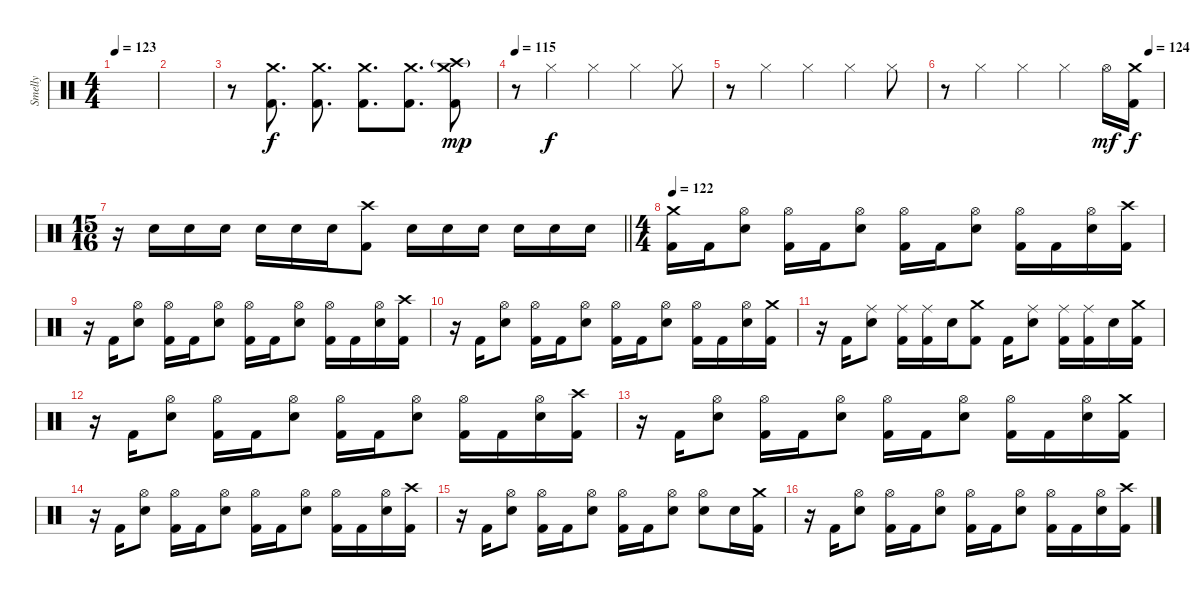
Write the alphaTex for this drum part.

\track ("Smelly" "Smelly") {instrument percussion}
\staff {score}
\articulation defaults
\ts (4 4)
\tempo 123
\clef neutral
\ks c
|
|
r.8 ("Crash medium (hit)" "Kick (hit) 2").8{d dy f} ("Crash medium (hit)" "Kick (hit) 2").8{d} ("Crash medium (hit)" "Kick (hit) 2").8{d} ("Crash medium (hit)" "Kick (hit) 2").8{d} ("Crash medium (hit)" "Crash high (hit)"{g} "Kick (hit) 2").8{dy mp} |
\tempo 115
r.8 "Hi-Hat (closed)".4{dy f} "Hi-Hat (closed)".4 "Hi-Hat (closed)".4 "Hi-Hat (closed)".8 |
r.8 "Hi-Hat (closed)".4 "Hi-Hat (closed)".4 "Hi-Hat (closed)".4 "Hi-Hat (closed)".8 |
\tempo (124 0.9375)
r.8 "Hi-Hat (closed)".4 "Hi-Hat (closed)".4 "Hi-Hat (closed)".4 "Hi-Hat (open)".16{dy mf} ("Crash medium (hit)" "Kick (hit) 2").16{dy f} |
\ts (15 16)
\barLineRight lightlight
r.16 "Electric Snare (hit)".16 "Electric Snare (hit)".16 "Electric Snare (hit)".16 "Electric Snare (hit)".16 "Electric Snare (hit)".16 "Electric Snare (hit)".16 ("Crash high (hit)" "Kick (hit) 2").8 "Electric Snare (hit)".16 "Electric Snare (hit)".16 "Electric Snare (hit)".16 "Electric Snare (hit)".16 "Electric Snare (hit)".16 "Electric Snare (hit)".16 |
\ts (4 4)
\section ("" "")
\tempo 122
("Crash medium (hit)" "Kick (hit) 2").16 "Kick (hit) 2".16 ("Hi-Hat (open)" "Electric Snare (hit)").8 ("Hi-Hat (open)" "Kick (hit) 2").16 "Kick (hit) 2".16 ("Hi-Hat (open)" "Electric Snare (hit)").8 ("Hi-Hat (open)" "Kick (hit) 2").16 "Kick (hit) 2".16 ("Hi-Hat (open)" "Electric Snare (hit)").8 ("Hi-Hat (open)" "Kick (hit) 2").16 "Kick (hit) 2".16 ("Hi-Hat (open)" "Electric Snare (hit)").16 ("Crash high (hit)" "Kick (hit) 2").16 |
r.16 "Kick (hit) 2".16 ("Hi-Hat (open)" "Electric Snare (hit)").8 ("Hi-Hat (open)" "Kick (hit) 2").16 "Kick (hit) 2".16 ("Hi-Hat (open)" "Electric Snare (hit)").8 ("Hi-Hat (open)" "Kick (hit) 2").16 "Kick (hit) 2".16 ("Hi-Hat (open)" "Electric Snare (hit)").8 ("Hi-Hat (open)" "Kick (hit) 2").16 "Kick (hit) 2".16 ("Hi-Hat (open)" "Electric Snare (hit)").16 ("Crash high (hit)" "Kick (hit) 2").16 |
r.16 "Kick (hit) 2".16 ("Hi-Hat (open)" "Electric Snare (hit)").8 ("Hi-Hat (open)" "Kick (hit) 2").16 "Kick (hit) 2".16 ("Hi-Hat (open)" "Electric Snare (hit)").8 ("Hi-Hat (open)" "Kick (hit) 2").16 "Kick (hit) 2".16 ("Hi-Hat (open)" "Electric Snare (hit)").8 ("Hi-Hat (open)" "Kick (hit) 2").16 "Kick (hit) 2".16 ("Hi-Hat (open)" "Electric Snare (hit)").16 ("Crash medium (hit)" "Kick (hit) 2").16 |
r.16 "Kick (hit) 2".16 ("Ride (middle)" "Electric Snare (hit)").8 ("Ride (middle)" "Kick (hit) 2").16 ("Ride (middle)" "Kick (hit) 2").16 "Electric Snare (hit)".16 ("Crash medium (hit)" "Kick (hit) 2").8 "Kick (hit) 2".16 ("Ride (middle)" "Electric Snare (hit)").8 ("Ride (middle)" "Kick (hit) 2").16 ("Ride (middle)" "Kick (hit) 2").16 "Electric Snare (hit)".16 ("Crash medium (hit)" "Kick (hit) 2").16 |
r.16 "Kick (hit) 2".16 ("Hi-Hat (open)" "Electric Snare (hit)").8 ("Hi-Hat (open)" "Kick (hit) 2").16 "Kick (hit) 2".16 ("Hi-Hat (open)" "Electric Snare (hit)").8 ("Hi-Hat (open)" "Kick (hit) 2").16 "Kick (hit) 2".16 ("Hi-Hat (open)" "Electric Snare (hit)").8 ("Hi-Hat (open)" "Kick (hit) 2").16 "Kick (hit) 2".16 ("Hi-Hat (open)" "Electric Snare (hit)").16 ("Crash high (hit)" "Kick (hit) 2").16 |
r.16 "Kick (hit) 2".16 ("Hi-Hat (open)" "Electric Snare (hit)").8 ("Hi-Hat (open)" "Kick (hit) 2").16 "Kick (hit) 2".16 ("Hi-Hat (open)" "Electric Snare (hit)").8 ("Hi-Hat (open)" "Kick (hit) 2").16 "Kick (hit) 2".16 ("Hi-Hat (open)" "Electric Snare (hit)").8 ("Hi-Hat (open)" "Kick (hit) 2").16 "Kick (hit) 2".16 ("Hi-Hat (open)" "Electric Snare (hit)").16 ("Crash medium (hit)" "Kick (hit) 2").16 |
r.16 "Kick (hit) 2".16 ("Hi-Hat (open)" "Electric Snare (hit)").8 ("Hi-Hat (open)" "Kick (hit) 2").16 "Kick (hit) 2".16 ("Hi-Hat (open)" "Electric Snare (hit)").8 ("Hi-Hat (open)" "Kick (hit) 2").16 "Kick (hit) 2".16 ("Hi-Hat (open)" "Electric Snare (hit)").8 ("Hi-Hat (open)" "Kick (hit) 2").16 "Kick (hit) 2".16 ("Hi-Hat (open)" "Electric Snare (hit)").16 ("Crash high (hit)" "Kick (hit) 2").16 |
r.16 "Kick (hit) 2".16 ("Hi-Hat (open)" "Electric Snare (hit)").8 ("Hi-Hat (open)" "Kick (hit) 2").16 "Kick (hit) 2".16 ("Hi-Hat (open)" "Electric Snare (hit)").8 ("Hi-Hat (open)" "Kick (hit) 2").16 "Kick (hit) 2".16 ("Hi-Hat (open)" "Electric Snare (hit)").8 ("Hi-Hat (open)" "Electric Snare (hit)").8 "Electric Snare (hit)".16 ("Crash medium (hit)" "Kick (hit) 2").16 |
r.16 "Kick (hit) 2".16 ("Hi-Hat (open)" "Electric Snare (hit)").8 ("Hi-Hat (open)" "Kick (hit) 2").16 "Kick (hit) 2".16 ("Hi-Hat (open)" "Electric Snare (hit)").8 ("Hi-Hat (open)" "Kick (hit) 2").16 "Kick (hit) 2".16 ("Hi-Hat (open)" "Electric Snare (hit)").8 ("Hi-Hat (open)" "Kick (hit) 2").16 "Kick (hit) 2".16 ("Hi-Hat (open)" "Electric Snare (hit)").16 ("Crash high (hit)" "Kick (hit) 2").16
